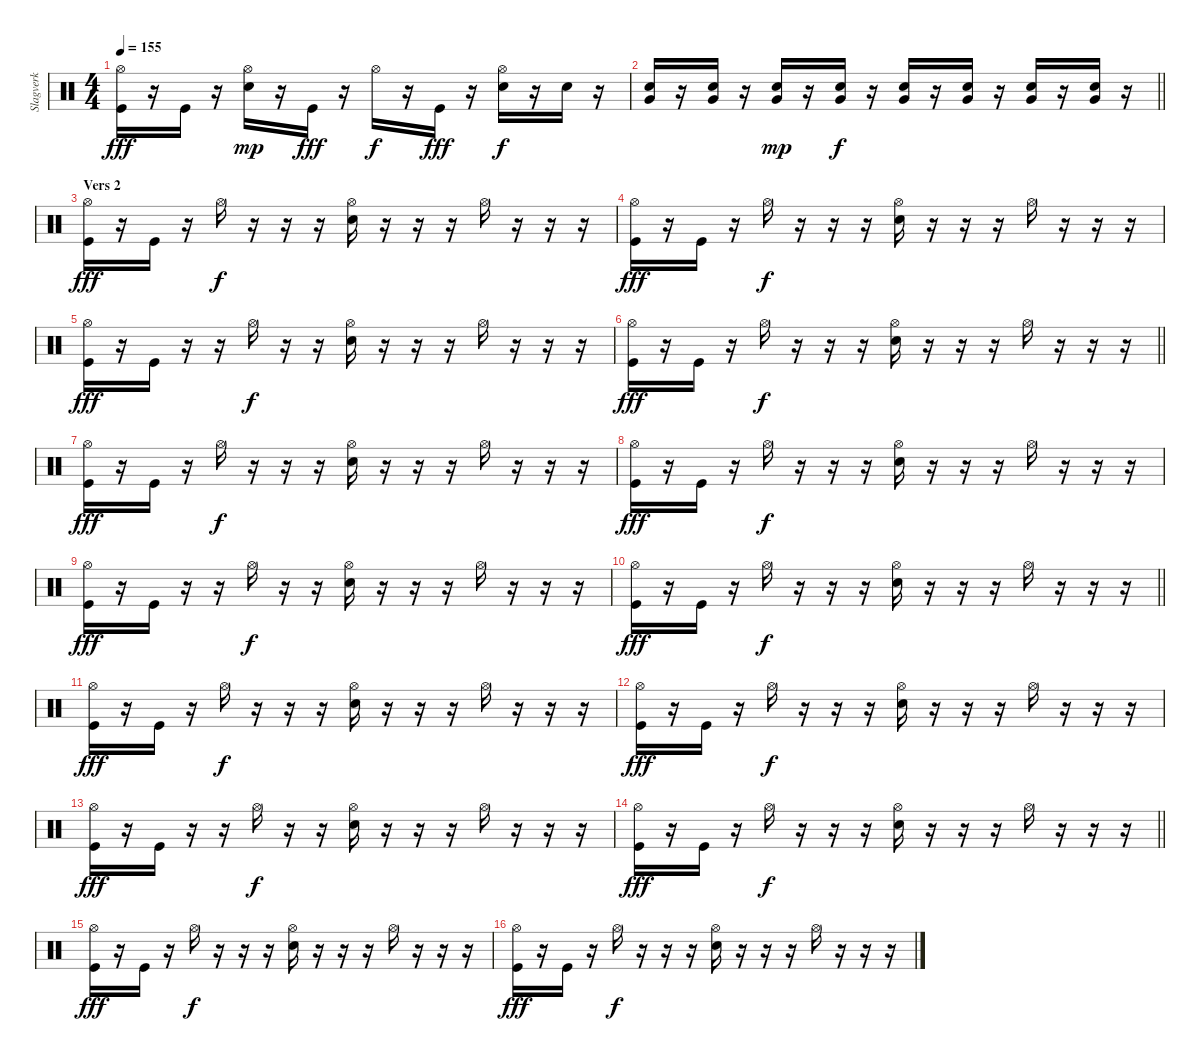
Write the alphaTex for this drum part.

\track ("Slagverk" "Slagverk") {instrument percussion}
\staff {score}
\articulation defaults
\ts (4 4)
\tempo 155
\clef neutral
\ks c
("Hi-Hat (open)" "Kick (hit)").16{dy fff} r.16 "Kick (hit)".16 r.16 ("Hi-Hat (open)" "Electric Snare (hit)").16{dy mp} r.16 "Kick (hit)".16{dy fff} r.16 "Hi-Hat (open)".16{dy f} r.16 "Kick (hit)".16{dy fff} r.16 ("Hi-Hat (open)" "Electric Snare (hit)").16{dy f} r.16 "Electric Snare (hit)".16 r.16 |
\barLineRight lightlight
("Very Low Tom (hit)" "Electric Snare (hit)").16 r.16 ("Very Low Tom (hit)" "Electric Snare (hit)").16 r.16 ("Very Low Tom (hit)" "Electric Snare (hit)").16{dy mp} r.16 ("Very Low Tom (hit)" "Electric Snare (hit)").16{dy f} r.16 ("Very Low Tom (hit)" "Electric Snare (hit)").16 r.16 ("Very Low Tom (hit)" "Electric Snare (hit)").16 r.16 ("Very Low Tom (hit)" "Electric Snare (hit)").16 r.16 ("Very Low Tom (hit)" "Electric Snare (hit)").16 r.16 |
\section ("" "Vers 2")
("Hi-Hat (open)" "Kick (hit)").16{dy fff} r.16 "Kick (hit)".16 r.16 "Hi-Hat (open)".16{dy f} r.16 r.16 r.16 ("Hi-Hat (open)" "Electric Snare (hit)").16 r.16 r.16 r.16 "Hi-Hat (open)".16 r.16 r.16 r.16 |
("Hi-Hat (open)" "Kick (hit)").16{dy fff} r.16 "Kick (hit)".16 r.16 "Hi-Hat (open)".16{dy f} r.16 r.16 r.16 ("Hi-Hat (open)" "Electric Snare (hit)").16 r.16 r.16 r.16 "Hi-Hat (open)".16 r.16 r.16 r.16 |
("Hi-Hat (open)" "Kick (hit)").16{dy fff} r.16 "Kick (hit)".16 r.16 r.16 "Hi-Hat (open)".16{dy f} r.16 r.16 ("Hi-Hat (open)" "Electric Snare (hit)").16 r.16 r.16 r.16 "Hi-Hat (open)".16 r.16 r.16 r.16 |
\barLineRight lightlight
("Hi-Hat (open)" "Kick (hit)").16{dy fff} r.16 "Kick (hit)".16 r.16 "Hi-Hat (open)".16{dy f} r.16 r.16 r.16 ("Hi-Hat (open)" "Electric Snare (hit)").16 r.16 r.16 r.16 "Hi-Hat (open)".16 r.16 r.16 r.16 |
("Hi-Hat (open)" "Kick (hit)").16{dy fff} r.16 "Kick (hit)".16 r.16 "Hi-Hat (open)".16{dy f} r.16 r.16 r.16 ("Hi-Hat (open)" "Electric Snare (hit)").16 r.16 r.16 r.16 "Hi-Hat (open)".16 r.16 r.16 r.16 |
("Hi-Hat (open)" "Kick (hit)").16{dy fff} r.16 "Kick (hit)".16 r.16 "Hi-Hat (open)".16{dy f} r.16 r.16 r.16 ("Hi-Hat (open)" "Electric Snare (hit)").16 r.16 r.16 r.16 "Hi-Hat (open)".16 r.16 r.16 r.16 |
("Hi-Hat (open)" "Kick (hit)").16{dy fff} r.16 "Kick (hit)".16 r.16 r.16 "Hi-Hat (open)".16{dy f} r.16 r.16 ("Hi-Hat (open)" "Electric Snare (hit)").16 r.16 r.16 r.16 "Hi-Hat (open)".16 r.16 r.16 r.16 |
\barLineRight lightlight
("Hi-Hat (open)" "Kick (hit)").16{dy fff} r.16 "Kick (hit)".16 r.16 "Hi-Hat (open)".16{dy f} r.16 r.16 r.16 ("Hi-Hat (open)" "Electric Snare (hit)").16 r.16 r.16 r.16 "Hi-Hat (open)".16 r.16 r.16 r.16 |
("Hi-Hat (open)" "Kick (hit)").16{dy fff} r.16 "Kick (hit)".16 r.16 "Hi-Hat (open)".16{dy f} r.16 r.16 r.16 ("Hi-Hat (open)" "Electric Snare (hit)").16 r.16 r.16 r.16 "Hi-Hat (open)".16 r.16 r.16 r.16 |
("Hi-Hat (open)" "Kick (hit)").16{dy fff} r.16 "Kick (hit)".16 r.16 "Hi-Hat (open)".16{dy f} r.16 r.16 r.16 ("Hi-Hat (open)" "Electric Snare (hit)").16 r.16 r.16 r.16 "Hi-Hat (open)".16 r.16 r.16 r.16 |
("Hi-Hat (open)" "Kick (hit)").16{dy fff} r.16 "Kick (hit)".16 r.16 r.16 "Hi-Hat (open)".16{dy f} r.16 r.16 ("Hi-Hat (open)" "Electric Snare (hit)").16 r.16 r.16 r.16 "Hi-Hat (open)".16 r.16 r.16 r.16 |
\barLineRight lightlight
("Hi-Hat (open)" "Kick (hit)").16{dy fff} r.16 "Kick (hit)".16 r.16 "Hi-Hat (open)".16{dy f} r.16 r.16 r.16 ("Hi-Hat (open)" "Electric Snare (hit)").16 r.16 r.16 r.16 "Hi-Hat (open)".16 r.16 r.16 r.16 |
("Hi-Hat (open)" "Kick (hit)").16{dy fff} r.16 "Kick (hit)".16 r.16 "Hi-Hat (open)".16{dy f} r.16 r.16 r.16 ("Hi-Hat (open)" "Electric Snare (hit)").16 r.16 r.16 r.16 "Hi-Hat (open)".16 r.16 r.16 r.16 |
("Hi-Hat (open)" "Kick (hit)").16{dy fff} r.16 "Kick (hit)".16 r.16 "Hi-Hat (open)".16{dy f} r.16 r.16 r.16 ("Hi-Hat (open)" "Electric Snare (hit)").16 r.16 r.16 r.16 "Hi-Hat (open)".16 r.16 r.16 r.16
